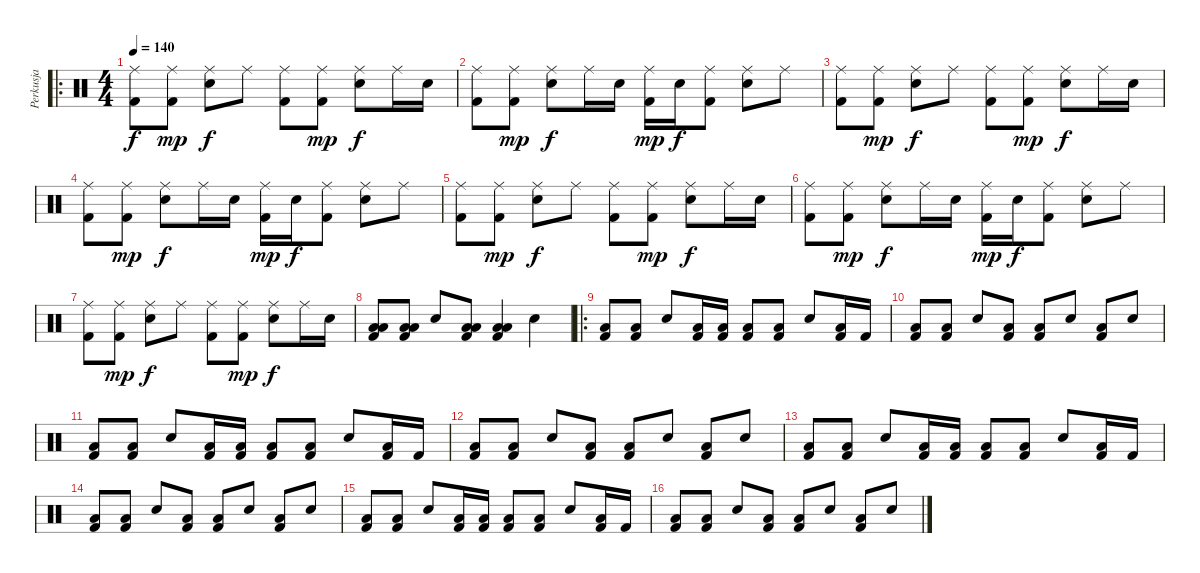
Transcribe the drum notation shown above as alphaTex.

\track ("Perkusja" "Perkusja") {instrument percussion}
\staff {score}
\articulation defaults
\ro
\ts (4 4)
\tempo 140
\clef neutral
\ks c
("Ride (middle)" "Kick (hit) 2").8{dy f} ("Ride (middle)" "Kick (hit) 2").8{dy mp} ("Ride (middle)" "Snare (hit) 2").8{dy f} "Ride (middle)".8 ("Ride (middle)" "Kick (hit) 2").8 ("Ride (middle)" "Kick (hit) 2").8{dy mp} ("Ride (middle)" "Snare (hit) 2").8{dy f} "Ride (middle)".16 "Snare (hit) 2".16 |
("Ride (middle)" "Kick (hit) 2").8 ("Ride (middle)" "Kick (hit) 2").8{dy mp} ("Ride (middle)" "Snare (hit) 2").8{dy f} "Ride (middle)".16 "Snare (hit) 2".16 ("Ride (middle)" "Kick (hit) 2").16{dy mp} "Snare (hit) 2".16{dy f} ("Ride (middle)" "Kick (hit) 2").8 ("Ride (middle)" "Snare (hit) 2").8 "Ride (middle)".8 |
("Ride (middle)" "Kick (hit) 2").8 ("Ride (middle)" "Kick (hit) 2").8{dy mp} ("Ride (middle)" "Snare (hit) 2").8{dy f} "Ride (middle)".8 ("Ride (middle)" "Kick (hit) 2").8 ("Ride (middle)" "Kick (hit) 2").8{dy mp} ("Ride (middle)" "Snare (hit) 2").8{dy f} "Ride (middle)".16 "Snare (hit) 2".16 |
("Ride (middle)" "Kick (hit) 2").8 ("Ride (middle)" "Kick (hit) 2").8{dy mp} ("Ride (middle)" "Snare (hit) 2").8{dy f} "Ride (middle)".16 "Snare (hit) 2".16 ("Ride (middle)" "Kick (hit) 2").16{dy mp} "Snare (hit) 2".16{dy f} ("Ride (middle)" "Kick (hit) 2").8 ("Ride (middle)" "Snare (hit) 2").8 "Ride (middle)".8 |
("Ride (middle)" "Kick (hit) 2").8 ("Ride (middle)" "Kick (hit) 2").8{dy mp} ("Ride (middle)" "Snare (hit) 2").8{dy f} "Ride (middle)".8 ("Ride (middle)" "Kick (hit) 2").8 ("Ride (middle)" "Kick (hit) 2").8{dy mp} ("Ride (middle)" "Snare (hit) 2").8{dy f} "Ride (middle)".16 "Snare (hit) 2".16 |
("Ride (middle)" "Kick (hit) 2").8 ("Ride (middle)" "Kick (hit) 2").8{dy mp} ("Ride (middle)" "Snare (hit) 2").8{dy f} "Ride (middle)".16 "Snare (hit) 2".16 ("Ride (middle)" "Kick (hit) 2").16{dy mp} "Snare (hit) 2".16{dy f} ("Ride (middle)" "Kick (hit) 2").8 ("Ride (middle)" "Snare (hit) 2").8 "Ride (middle)".8 |
("Ride (middle)" "Kick (hit) 2").8 ("Ride (middle)" "Kick (hit) 2").8{dy mp} ("Ride (middle)" "Snare (hit) 2").8{dy f} "Ride (middle)".8 ("Ride (middle)" "Kick (hit) 2").8 ("Ride (middle)" "Kick (hit) 2").8{dy mp} ("Ride (middle)" "Snare (hit) 2").8{dy f} "Ride (middle)".16 "Snare (hit) 2".16 |
("Low Floor Tom (hit)" "Low Tom (hit)" "Kick (hit) 2").8 ("Low Floor Tom (hit)" "Low Tom (hit)" "Kick (hit) 2").8 "Snare (hit) 2".8 ("Low Floor Tom (hit)" "Low Tom (hit)" "Kick (hit) 2").8 ("Low Floor Tom (hit)" "Low Tom (hit)" "Kick (hit) 2").4 "Snare (hit) 2".4 |
\ro
("Low Floor Tom (hit)" "Kick (hit) 2").8 ("Low Floor Tom (hit)" "Kick (hit) 2").8 "Snare (hit) 2".8 ("Low Floor Tom (hit)" "Kick (hit) 2").16 ("Low Floor Tom (hit)" "Kick (hit) 2").16 ("Low Floor Tom (hit)" "Kick (hit) 2").8 ("Low Floor Tom (hit)" "Kick (hit) 2").8 "Snare (hit) 2".8 ("Low Floor Tom (hit)" "Kick (hit) 2").16 "Kick (hit) 2".16 |
("Low Floor Tom (hit)" "Kick (hit) 2").8 ("Low Floor Tom (hit)" "Kick (hit) 2").8 "Snare (hit) 2".8 ("Low Floor Tom (hit)" "Kick (hit) 2").8 ("Low Floor Tom (hit)" "Kick (hit) 2").8 "Snare (hit) 2".8 ("Low Floor Tom (hit)" "Kick (hit) 2").8 "Snare (hit) 2".8 |
("Low Floor Tom (hit)" "Kick (hit) 2").8 ("Low Floor Tom (hit)" "Kick (hit) 2").8 "Snare (hit) 2".8 ("Low Floor Tom (hit)" "Kick (hit) 2").16 ("Low Floor Tom (hit)" "Kick (hit) 2").16 ("Low Floor Tom (hit)" "Kick (hit) 2").8 ("Low Floor Tom (hit)" "Kick (hit) 2").8 "Snare (hit) 2".8 ("Low Floor Tom (hit)" "Kick (hit) 2").16 "Kick (hit) 2".16 |
("Low Floor Tom (hit)" "Kick (hit) 2").8 ("Low Floor Tom (hit)" "Kick (hit) 2").8 "Snare (hit) 2".8 ("Low Floor Tom (hit)" "Kick (hit) 2").8 ("Low Floor Tom (hit)" "Kick (hit) 2").8 "Snare (hit) 2".8 ("Low Floor Tom (hit)" "Kick (hit) 2").8 "Snare (hit) 2".8 |
("Low Floor Tom (hit)" "Kick (hit) 2").8 ("Low Floor Tom (hit)" "Kick (hit) 2").8 "Snare (hit) 2".8 ("Low Floor Tom (hit)" "Kick (hit) 2").16 ("Low Floor Tom (hit)" "Kick (hit) 2").16 ("Low Floor Tom (hit)" "Kick (hit) 2").8 ("Low Floor Tom (hit)" "Kick (hit) 2").8 "Snare (hit) 2".8 ("Low Floor Tom (hit)" "Kick (hit) 2").16 "Kick (hit) 2".16 |
("Low Floor Tom (hit)" "Kick (hit) 2").8 ("Low Floor Tom (hit)" "Kick (hit) 2").8 "Snare (hit) 2".8 ("Low Floor Tom (hit)" "Kick (hit) 2").8 ("Low Floor Tom (hit)" "Kick (hit) 2").8 "Snare (hit) 2".8 ("Low Floor Tom (hit)" "Kick (hit) 2").8 "Snare (hit) 2".8 |
("Low Floor Tom (hit)" "Kick (hit) 2").8 ("Low Floor Tom (hit)" "Kick (hit) 2").8 "Snare (hit) 2".8 ("Low Floor Tom (hit)" "Kick (hit) 2").16 ("Low Floor Tom (hit)" "Kick (hit) 2").16 ("Low Floor Tom (hit)" "Kick (hit) 2").8 ("Low Floor Tom (hit)" "Kick (hit) 2").8 "Snare (hit) 2".8 ("Low Floor Tom (hit)" "Kick (hit) 2").16 "Kick (hit) 2".16 |
("Low Floor Tom (hit)" "Kick (hit) 2").8 ("Low Floor Tom (hit)" "Kick (hit) 2").8 "Snare (hit) 2".8 ("Low Floor Tom (hit)" "Kick (hit) 2").8 ("Low Floor Tom (hit)" "Kick (hit) 2").8 "Snare (hit) 2".8 ("Low Floor Tom (hit)" "Kick (hit) 2").8 "Snare (hit) 2".8
